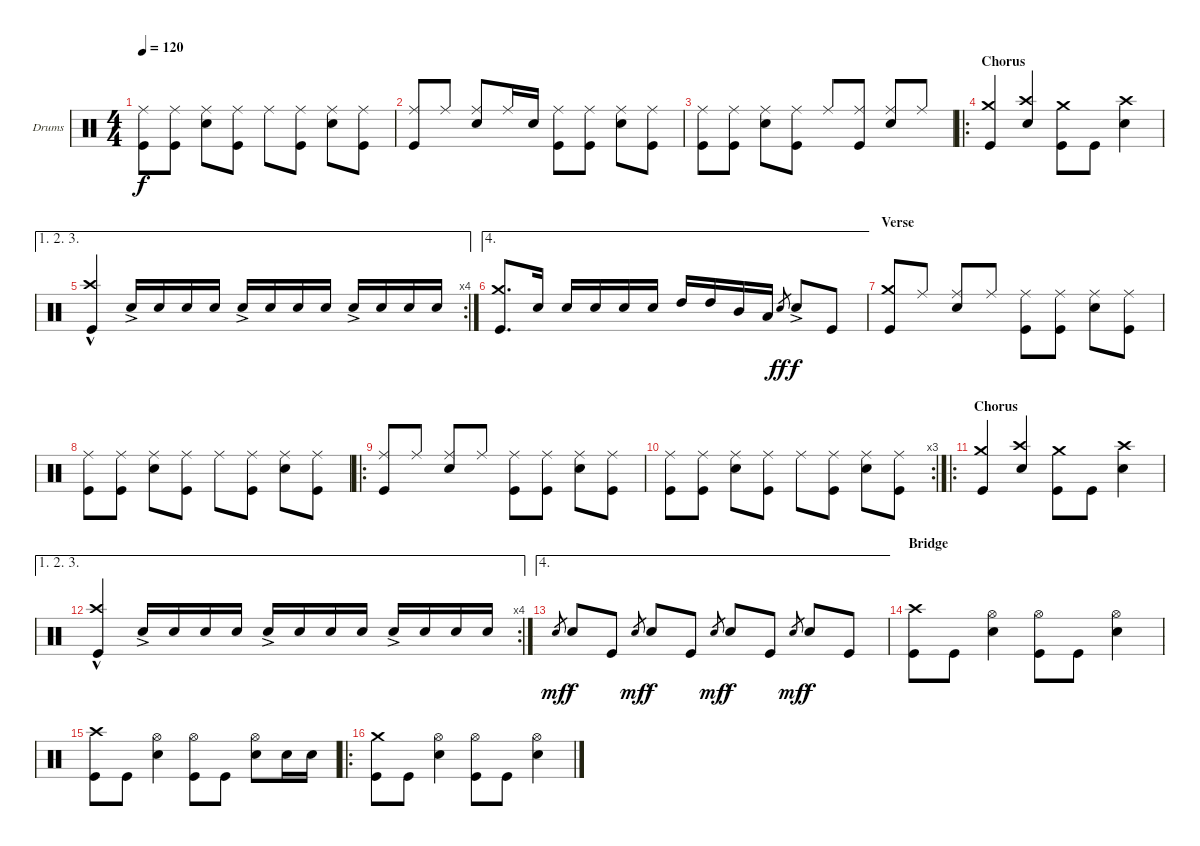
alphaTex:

\defaultSystemsLayout 4
\bracketExtendMode groupsimilarinstruments
\firstSystemTrackNameOrientation horizontal
\otherSystemsTrackNameOrientation horizontal
\track ("Drumkit" "Drums") {mute instrument percussion}
\staff {score}
\articulation defaults
\ts (4 4)
\tempo 120
\clef neutral
\ks c
("Kick (hit)" "Ride (middle)").8{dy f} ("Kick (hit)" "Ride (middle)").8 ("Snare (hit) 2" "Ride (middle)").8 ("Kick (hit)" "Ride (middle)").8 "Ride (middle)".8 ("Kick (hit)" "Ride (middle)").8 ("Snare (hit) 2" "Ride (middle)").8 ("Kick (hit)" "Ride (middle)").8 |
("Kick (hit)" "Ride (middle)").8{beam invert} "Ride (middle)".8 ("Snare (hit) 2" "Ride (middle)").8{beam invert} "Ride (middle)".16 "Snare (hit) 2".16 ("Kick (hit)" "Ride (middle)").8 ("Kick (hit)" "Ride (middle)").8 ("Snare (hit) 2" "Ride (middle)").8 ("Kick (hit)" "Ride (middle)").8 |
("Kick (hit)" "Ride (middle)").8 ("Kick (hit)" "Ride (middle)").8 ("Snare (hit) 2" "Ride (middle)").8 ("Kick (hit)" "Ride (middle)").8 "Ride (middle)".8 ("Kick (hit)" "Ride (middle)").8 ("Snare (hit) 2" "Ride (middle)").8{beam invert} "Ride (middle)".8 |
\ro
\section ("" "Chorus")
("Crash medium (hit)" "Kick (hit)").4 ("Snare (hit) 2" "Crash high (hit)").4{beam invert} ("Crash medium (hit)" "Kick (hit)").8 "Kick (hit)".8 ("Snare (hit) 2" "Crash high (hit)").4 |
\ae (1 2 3)
\rc 4
("Kick (hit)" "Crash high (hit)"{hac}).4 "Snare (hit) 2"{ac}.16{beam invert} "Snare (hit) 2".16 "Snare (hit) 2".16 "Snare (hit) 2".16 "Snare (hit) 2"{ac}.16{beam invert} "Snare (hit) 2".16 "Snare (hit) 2".16 "Snare (hit) 2".16 "Snare (hit) 2"{ac}.16{beam invert} "Snare (hit) 2".16 "Snare (hit) 2".16 "Snare (hit) 2".16 |
\ae 4
("Crash medium (hit)" "Kick (hit)").8{d} "Snare (hit) 2".16 "Snare (hit) 2".16{beam invert} "Snare (hit) 2".16 "Snare (hit) 2".16 "Snare (hit) 2".16 "High Tom (hit)".16{beam invert} "High Tom (hit)".16 "Mid Tom (hit)".16 "Low Tom (hit)".16 "Snare (hit) 2".8{gr dy ff} "Snare (hit) 2"{ac}.8{dy f} "Kick (hit)".8 |
\section ("" "Verse")
("Kick (hit)" "Crash medium (hit)").8 "Ride (middle)".8 ("Snare (hit) 2" "Ride (middle)").8{beam invert} "Ride (middle)".8 ("Kick (hit)" "Ride (middle)").8 ("Kick (hit)" "Ride (middle)").8 ("Snare (hit) 2" "Ride (middle)").8 ("Kick (hit)" "Ride (middle)").8 |
("Kick (hit)" "Ride (middle)").8 ("Kick (hit)" "Ride (middle)").8 ("Snare (hit) 2" "Ride (middle)").8 ("Kick (hit)" "Ride (middle)").8 "Ride (middle)".8 ("Kick (hit)" "Ride (middle)").8 ("Snare (hit) 2" "Ride (middle)").8 ("Kick (hit)" "Ride (middle)").8 |
\ro
("Kick (hit)" "Ride (middle)").8{beam invert} "Ride (middle)".8 ("Snare (hit) 2" "Ride (middle)").8{beam invert} "Ride (middle)".8 ("Kick (hit)" "Ride (middle)").8 ("Kick (hit)" "Ride (middle)").8 ("Snare (hit) 2" "Ride (middle)").8 ("Kick (hit)" "Ride (middle)").8 |
\rc 3
("Kick (hit)" "Ride (middle)").8 ("Kick (hit)" "Ride (middle)").8 ("Snare (hit) 2" "Ride (middle)").8 ("Kick (hit)" "Ride (middle)").8 "Ride (middle)".8 ("Kick (hit)" "Ride (middle)").8 ("Snare (hit) 2" "Ride (middle)").8 ("Kick (hit)" "Ride (middle)").8 |
\ro
\section ("" "Chorus")
("Crash medium (hit)" "Kick (hit)").4 ("Snare (hit) 2" "Crash high (hit)").4{beam invert} ("Crash medium (hit)" "Kick (hit)").8 "Kick (hit)".8 ("Snare (hit) 2" "Crash high (hit)").4 |
\ae (1 2 3)
\rc 4
("Kick (hit)" "Crash high (hit)"{hac}).4 "Snare (hit) 2"{ac}.16{beam invert} "Snare (hit) 2".16 "Snare (hit) 2".16 "Snare (hit) 2".16 "Snare (hit) 2"{ac}.16{beam invert} "Snare (hit) 2".16 "Snare (hit) 2".16 "Snare (hit) 2".16 "Snare (hit) 2"{ac}.16{beam invert} "Snare (hit) 2".16 "Snare (hit) 2".16 "Snare (hit) 2".16 |
\ae 4 "Snare (hit) 2".8{gr dy mf} "Snare (hit) 2".8{dy f} "Kick (hit)".8 "Snare (hit) 2".8{gr dy mf} "Snare (hit) 2".8{dy f} "Kick (hit)".8 "Snare (hit) 2".8{gr dy mf} "Snare (hit) 2".8{dy f} "Kick (hit)".8 "Snare (hit) 2".8{gr dy mf} "Snare (hit) 2".8{dy f} "Kick (hit)".8
|
\section ("" "Bridge")
("Kick (hit)" "Crash high (hit)").8 "Kick (hit)".8 ("Hi-Hat (open)" "Snare (hit) 2").4 ("Hi-Hat (open)" "Kick (hit)").8 "Kick (hit)".8 ("Hi-Hat (open)" "Snare (hit) 2").4 |
("Kick (hit)" "Crash high (hit)").8 "Kick (hit)".8 ("Hi-Hat (open)" "Snare (hit) 2").4 ("Hi-Hat (open)" "Kick (hit)").8 "Kick (hit)".8 ("Hi-Hat (open)" "Snare (hit) 2").8 "Snare (hit) 2".16 "Snare (hit) 2".16 |
\ro
("Kick (hit)" "Crash medium (hit)").8 "Kick (hit)".8 ("Hi-Hat (open)" "Snare (hit) 2").4 ("Hi-Hat (open)" "Kick (hit)").8 "Kick (hit)".8 ("Hi-Hat (open)" "Snare (hit) 2").4
